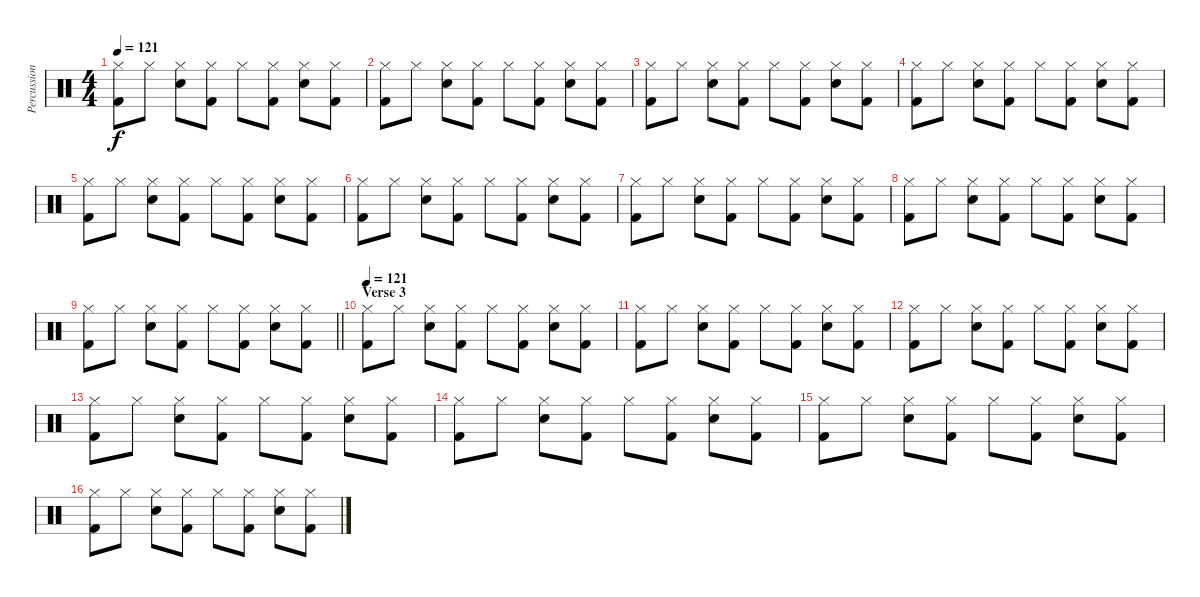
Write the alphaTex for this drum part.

\track ("Percussion" "Percussion") {instrument percussion}
\staff {score}
\articulation defaults
\ts (4 4)
\tempo 121
\clef neutral
\ks c
("Hi-Hat (closed)" "Kick (hit) 2").8{dy f} "Hi-Hat (closed)".8 ("Hi-Hat (closed)" "Snare (hit) 2").8 ("Hi-Hat (closed)" "Kick (hit) 2").8 "Hi-Hat (closed)".8 ("Hi-Hat (closed)" "Kick (hit) 2").8 ("Hi-Hat (closed)" "Snare (hit) 2").8 ("Hi-Hat (closed)" "Kick (hit) 2").8 |
("Hi-Hat (closed)" "Kick (hit) 2").8 "Hi-Hat (closed)".8 ("Hi-Hat (closed)" "Snare (hit) 2").8 ("Hi-Hat (closed)" "Kick (hit) 2").8 "Hi-Hat (closed)".8 ("Hi-Hat (closed)" "Kick (hit) 2").8 ("Hi-Hat (closed)" "Snare (hit) 2").8 ("Hi-Hat (closed)" "Kick (hit) 2").8 |
("Hi-Hat (closed)" "Kick (hit) 2").8 "Hi-Hat (closed)".8 ("Hi-Hat (closed)" "Snare (hit) 2").8 ("Hi-Hat (closed)" "Kick (hit) 2").8 "Hi-Hat (closed)".8 ("Hi-Hat (closed)" "Kick (hit) 2").8 ("Hi-Hat (closed)" "Snare (hit) 2").8 ("Hi-Hat (closed)" "Kick (hit) 2").8 |
("Hi-Hat (closed)" "Kick (hit) 2").8 "Hi-Hat (closed)".8 ("Hi-Hat (closed)" "Snare (hit) 2").8 ("Hi-Hat (closed)" "Kick (hit) 2").8 "Hi-Hat (closed)".8 ("Hi-Hat (closed)" "Kick (hit) 2").8 ("Hi-Hat (closed)" "Snare (hit) 2").8 ("Hi-Hat (closed)" "Kick (hit) 2").8 |
("Hi-Hat (closed)" "Kick (hit) 2").8 "Hi-Hat (closed)".8 ("Hi-Hat (closed)" "Snare (hit) 2").8 ("Hi-Hat (closed)" "Kick (hit) 2").8 "Hi-Hat (closed)".8 ("Hi-Hat (closed)" "Kick (hit) 2").8 ("Hi-Hat (closed)" "Snare (hit) 2").8 ("Hi-Hat (closed)" "Kick (hit) 2").8 |
("Hi-Hat (closed)" "Kick (hit) 2").8 "Hi-Hat (closed)".8 ("Hi-Hat (closed)" "Snare (hit) 2").8 ("Hi-Hat (closed)" "Kick (hit) 2").8 "Hi-Hat (closed)".8 ("Hi-Hat (closed)" "Kick (hit) 2").8 ("Hi-Hat (closed)" "Snare (hit) 2").8 ("Hi-Hat (closed)" "Kick (hit) 2").8 |
("Hi-Hat (closed)" "Kick (hit) 2").8 "Hi-Hat (closed)".8 ("Hi-Hat (closed)" "Snare (hit) 2").8 ("Hi-Hat (closed)" "Kick (hit) 2").8 "Hi-Hat (closed)".8 ("Hi-Hat (closed)" "Kick (hit) 2").8 ("Hi-Hat (closed)" "Snare (hit) 2").8 ("Hi-Hat (closed)" "Kick (hit) 2").8 |
("Hi-Hat (closed)" "Kick (hit) 2").8 "Hi-Hat (closed)".8 ("Hi-Hat (closed)" "Snare (hit) 2").8 ("Hi-Hat (closed)" "Kick (hit) 2").8 "Hi-Hat (closed)".8 ("Hi-Hat (closed)" "Kick (hit) 2").8 ("Hi-Hat (closed)" "Snare (hit) 2").8 ("Hi-Hat (closed)" "Kick (hit) 2").8 |
\barLineRight lightlight
("Hi-Hat (closed)" "Kick (hit) 2").8 "Hi-Hat (closed)".8 ("Hi-Hat (closed)" "Snare (hit) 2").8 ("Hi-Hat (closed)" "Kick (hit) 2").8 "Hi-Hat (closed)".8 ("Hi-Hat (closed)" "Kick (hit) 2").8 ("Hi-Hat (closed)" "Snare (hit) 2").8 ("Hi-Hat (closed)" "Kick (hit) 2").8 |
\section ("" "Verse 3")
\tempo 121
("Hi-Hat (closed)" "Kick (hit) 2").8 "Hi-Hat (closed)".8 ("Hi-Hat (closed)" "Snare (hit) 2").8 ("Hi-Hat (closed)" "Kick (hit) 2").8 "Hi-Hat (closed)".8 ("Hi-Hat (closed)" "Kick (hit) 2").8 ("Hi-Hat (closed)" "Snare (hit) 2").8 ("Hi-Hat (closed)" "Kick (hit) 2").8 |
("Hi-Hat (closed)" "Kick (hit) 2").8 "Hi-Hat (closed)".8 ("Hi-Hat (closed)" "Snare (hit) 2").8 ("Hi-Hat (closed)" "Kick (hit) 2").8 "Hi-Hat (closed)".8 ("Hi-Hat (closed)" "Kick (hit) 2").8 ("Hi-Hat (closed)" "Snare (hit) 2").8 ("Hi-Hat (closed)" "Kick (hit) 2").8 |
("Hi-Hat (closed)" "Kick (hit) 2").8 "Hi-Hat (closed)".8 ("Hi-Hat (closed)" "Snare (hit) 2").8 ("Hi-Hat (closed)" "Kick (hit) 2").8 "Hi-Hat (closed)".8 ("Hi-Hat (closed)" "Kick (hit) 2").8 ("Hi-Hat (closed)" "Snare (hit) 2").8 ("Hi-Hat (closed)" "Kick (hit) 2").8 |
("Hi-Hat (closed)" "Kick (hit) 2").8 "Hi-Hat (closed)".8 ("Hi-Hat (closed)" "Snare (hit) 2").8 ("Hi-Hat (closed)" "Kick (hit) 2").8 "Hi-Hat (closed)".8 ("Hi-Hat (closed)" "Kick (hit) 2").8 ("Hi-Hat (closed)" "Snare (hit) 2").8 ("Hi-Hat (closed)" "Kick (hit) 2").8 |
("Hi-Hat (closed)" "Kick (hit) 2").8 "Hi-Hat (closed)".8 ("Hi-Hat (closed)" "Snare (hit) 2").8 ("Hi-Hat (closed)" "Kick (hit) 2").8 "Hi-Hat (closed)".8 ("Hi-Hat (closed)" "Kick (hit) 2").8 ("Hi-Hat (closed)" "Snare (hit) 2").8 ("Hi-Hat (closed)" "Kick (hit) 2").8 |
("Hi-Hat (closed)" "Kick (hit) 2").8 "Hi-Hat (closed)".8 ("Hi-Hat (closed)" "Snare (hit) 2").8 ("Hi-Hat (closed)" "Kick (hit) 2").8 "Hi-Hat (closed)".8 ("Hi-Hat (closed)" "Kick (hit) 2").8 ("Hi-Hat (closed)" "Snare (hit) 2").8 ("Hi-Hat (closed)" "Kick (hit) 2").8 |
("Hi-Hat (closed)" "Kick (hit) 2").8 "Hi-Hat (closed)".8 ("Hi-Hat (closed)" "Snare (hit) 2").8 ("Hi-Hat (closed)" "Kick (hit) 2").8 "Hi-Hat (closed)".8 ("Hi-Hat (closed)" "Kick (hit) 2").8 ("Hi-Hat (closed)" "Snare (hit) 2").8 ("Hi-Hat (closed)" "Kick (hit) 2").8
